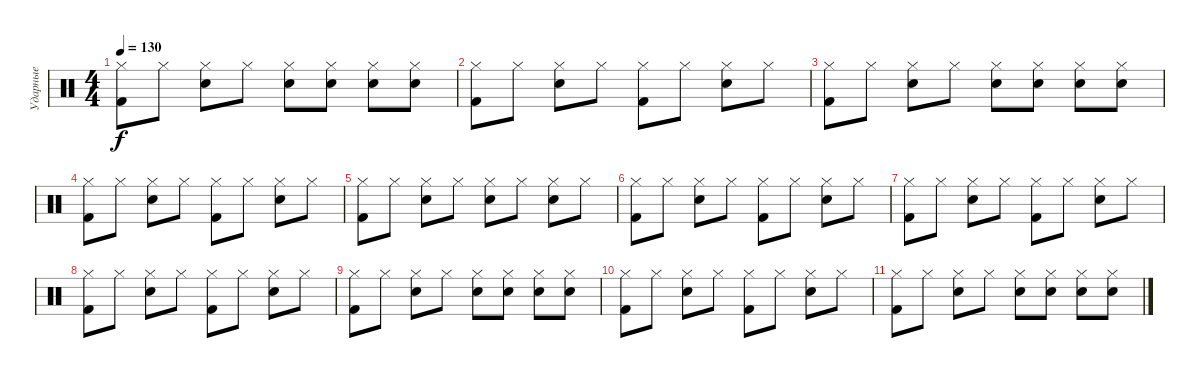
\track ("Ударные" "Ударные") {instrument percussion}
\staff {score}
\articulation defaults
\ts (4 4)
\tempo 130
\clef neutral
\ks c
("Hi-Hat (closed)" "Kick (hit) 2").8{dy f} "Hi-Hat (closed)".8 ("Hi-Hat (closed)" "Snare (hit) 2").8 "Hi-Hat (closed)".8 ("Hi-Hat (closed)" "Snare (hit) 2").8 ("Hi-Hat (closed)" "Snare (hit) 2").8 ("Hi-Hat (closed)" "Snare (hit) 2").8 ("Hi-Hat (closed)" "Snare (hit) 2").8 |
("Hi-Hat (closed)" "Kick (hit) 2").8 "Hi-Hat (closed)".8 ("Hi-Hat (closed)" "Snare (hit) 2").8 "Hi-Hat (closed)".8 ("Hi-Hat (closed)" "Kick (hit) 2").8 "Hi-Hat (closed)".8 ("Hi-Hat (closed)" "Snare (hit) 2").8 "Hi-Hat (closed)".8 |
("Hi-Hat (closed)" "Kick (hit) 2").8 "Hi-Hat (closed)".8 ("Hi-Hat (closed)" "Snare (hit) 2").8 "Hi-Hat (closed)".8 ("Hi-Hat (closed)" "Snare (hit) 2").8 ("Hi-Hat (closed)" "Snare (hit) 2").8 ("Hi-Hat (closed)" "Snare (hit) 2").8 ("Hi-Hat (closed)" "Snare (hit) 2").8 |
("Hi-Hat (closed)" "Kick (hit) 2").8 "Hi-Hat (closed)".8 ("Hi-Hat (closed)" "Snare (hit) 2").8 "Hi-Hat (closed)".8 ("Hi-Hat (closed)" "Kick (hit) 2").8 "Hi-Hat (closed)".8 ("Hi-Hat (closed)" "Snare (hit) 2").8 "Hi-Hat (closed)".8 |
("Hi-Hat (closed)" "Kick (hit) 2").8 "Hi-Hat (closed)".8 ("Hi-Hat (closed)" "Snare (hit) 2").8 "Hi-Hat (closed)".8 ("Hi-Hat (closed)" "Snare (hit) 2").8 "Hi-Hat (closed)".8 ("Hi-Hat (closed)" "Snare (hit) 2").8 "Hi-Hat (closed)".8 |
("Hi-Hat (closed)" "Kick (hit) 2").8 "Hi-Hat (closed)".8 ("Hi-Hat (closed)" "Snare (hit) 2").8 "Hi-Hat (closed)".8 ("Hi-Hat (closed)" "Kick (hit) 2").8 "Hi-Hat (closed)".8 ("Hi-Hat (closed)" "Snare (hit) 2").8 "Hi-Hat (closed)".8 |
("Hi-Hat (closed)" "Kick (hit) 2").8 "Hi-Hat (closed)".8 ("Hi-Hat (closed)" "Snare (hit) 2").8 "Hi-Hat (closed)".8 ("Hi-Hat (closed)" "Kick (hit) 2").8 "Hi-Hat (closed)".8 ("Hi-Hat (closed)" "Snare (hit) 2").8 "Hi-Hat (closed)".8 |
("Hi-Hat (closed)" "Kick (hit) 2").8 "Hi-Hat (closed)".8 ("Hi-Hat (closed)" "Snare (hit) 2").8 "Hi-Hat (closed)".8 ("Hi-Hat (closed)" "Kick (hit) 2").8 "Hi-Hat (closed)".8 ("Hi-Hat (closed)" "Snare (hit) 2").8 "Hi-Hat (closed)".8 |
("Hi-Hat (closed)" "Kick (hit) 2").8 "Hi-Hat (closed)".8 ("Hi-Hat (closed)" "Snare (hit) 2").8 "Hi-Hat (closed)".8 ("Hi-Hat (closed)" "Snare (hit) 2").8 ("Hi-Hat (closed)" "Snare (hit) 2").8 ("Hi-Hat (closed)" "Snare (hit) 2").8 ("Hi-Hat (closed)" "Snare (hit) 2").8 |
("Hi-Hat (closed)" "Kick (hit) 2").8 "Hi-Hat (closed)".8 ("Hi-Hat (closed)" "Snare (hit) 2").8 "Hi-Hat (closed)".8 ("Hi-Hat (closed)" "Kick (hit) 2").8 "Hi-Hat (closed)".8 ("Hi-Hat (closed)" "Snare (hit) 2").8 "Hi-Hat (closed)".8 |
("Hi-Hat (closed)" "Kick (hit) 2").8 "Hi-Hat (closed)".8 ("Hi-Hat (closed)" "Snare (hit) 2").8 "Hi-Hat (closed)".8 ("Hi-Hat (closed)" "Snare (hit) 2").8 ("Hi-Hat (closed)" "Snare (hit) 2").8 ("Hi-Hat (closed)" "Snare (hit) 2").8 ("Hi-Hat (closed)" "Snare (hit) 2").8
